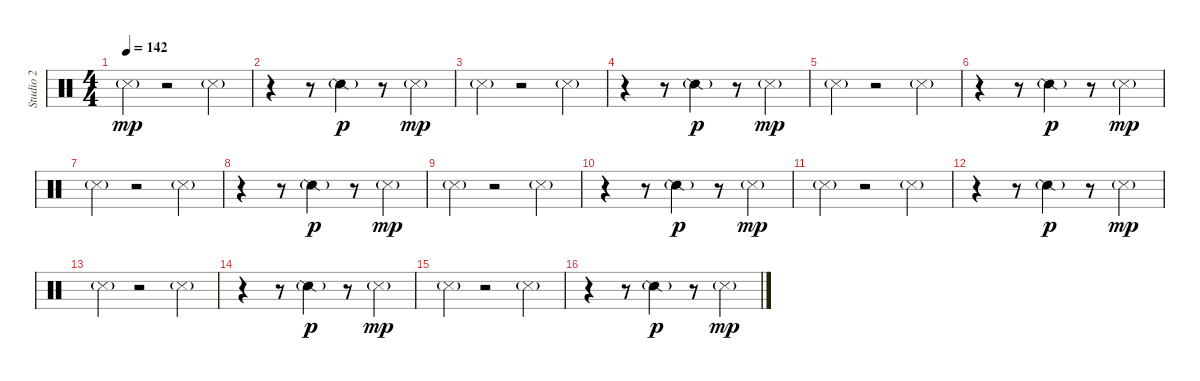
\track ("Studio 2" "Studio 2") {instrument percussion}
\staff {score}
\articulation defaults
\ts (4 4)
\tempo 142
\clef neutral
\ks c "Metronome (hit)"{g}.4{dy mp}
r.2 "Snare (side stick) 3"{g}.4 |
r.4 r.8 "Snare (side stick) 2"{g}.4{dy p} r.8 "Snare (side stick) 3"{g}.4{dy mp} |
"Metronome (hit)"{g}.4 r.2 "Snare (side stick) 3"{g}.4 |
r.4 r.8 "Snare (side stick) 2"{g}.4{dy p} r.8 "Snare (side stick) 3"{g}.4{dy mp} |
"Metronome (hit)"{g}.4 r.2 "Snare (side stick) 3"{g}.4 |
r.4 r.8 "Snare (side stick) 2"{g}.4{dy p} r.8 "Snare (side stick) 3"{g}.4{dy mp} |
"Metronome (hit)"{g}.4 r.2 "Snare (side stick) 3"{g}.4 |
r.4 r.8 "Snare (side stick) 2"{g}.4{dy p} r.8 "Snare (side stick) 3"{g}.4{dy mp} |
"Metronome (hit)"{g}.4 r.2 "Snare (side stick) 3"{g}.4 |
r.4 r.8 "Snare (side stick) 2"{g}.4{dy p} r.8 "Snare (side stick) 3"{g}.4{dy mp} |
"Metronome (hit)"{g}.4 r.2 "Snare (side stick) 3"{g}.4 |
r.4 r.8 "Snare (side stick) 2"{g}.4{dy p} r.8 "Snare (side stick) 3"{g}.4{dy mp} |
"Metronome (hit)"{g}.4 r.2 "Snare (side stick) 3"{g}.4 |
r.4 r.8 "Snare (side stick) 2"{g}.4{dy p} r.8 "Snare (side stick) 3"{g}.4{dy mp} |
"Metronome (hit)"{g}.4 r.2 "Snare (side stick) 3"{g}.4 |
r.4 r.8 "Snare (side stick) 2"{g}.4{dy p} r.8 "Snare (side stick) 3"{g}.4{dy mp}
